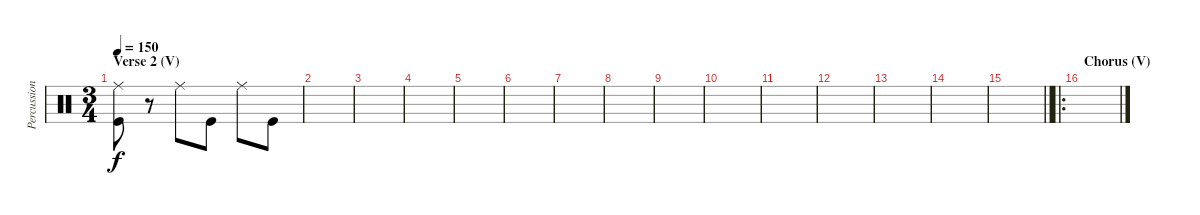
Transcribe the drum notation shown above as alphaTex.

\track ("Percussion" "Percussion") {instrument percussion}
\staff {score}
\articulation defaults
\ts (3 4)
\section ("" "Verse 2 (V)")
\tempo 150
\clef neutral
\ks c
("Ride (middle)" "Kick (hit)").8{dy f} r.8 "Ride (middle)".8 "Kick (hit)".8 "Ride (middle)".8 "Kick (hit)".8 |
|
|
|
|
|
|
|
|
|
|
|
|
|
\barLineRight lightlight
|
\ro
\section ("" "Chorus (V)")
